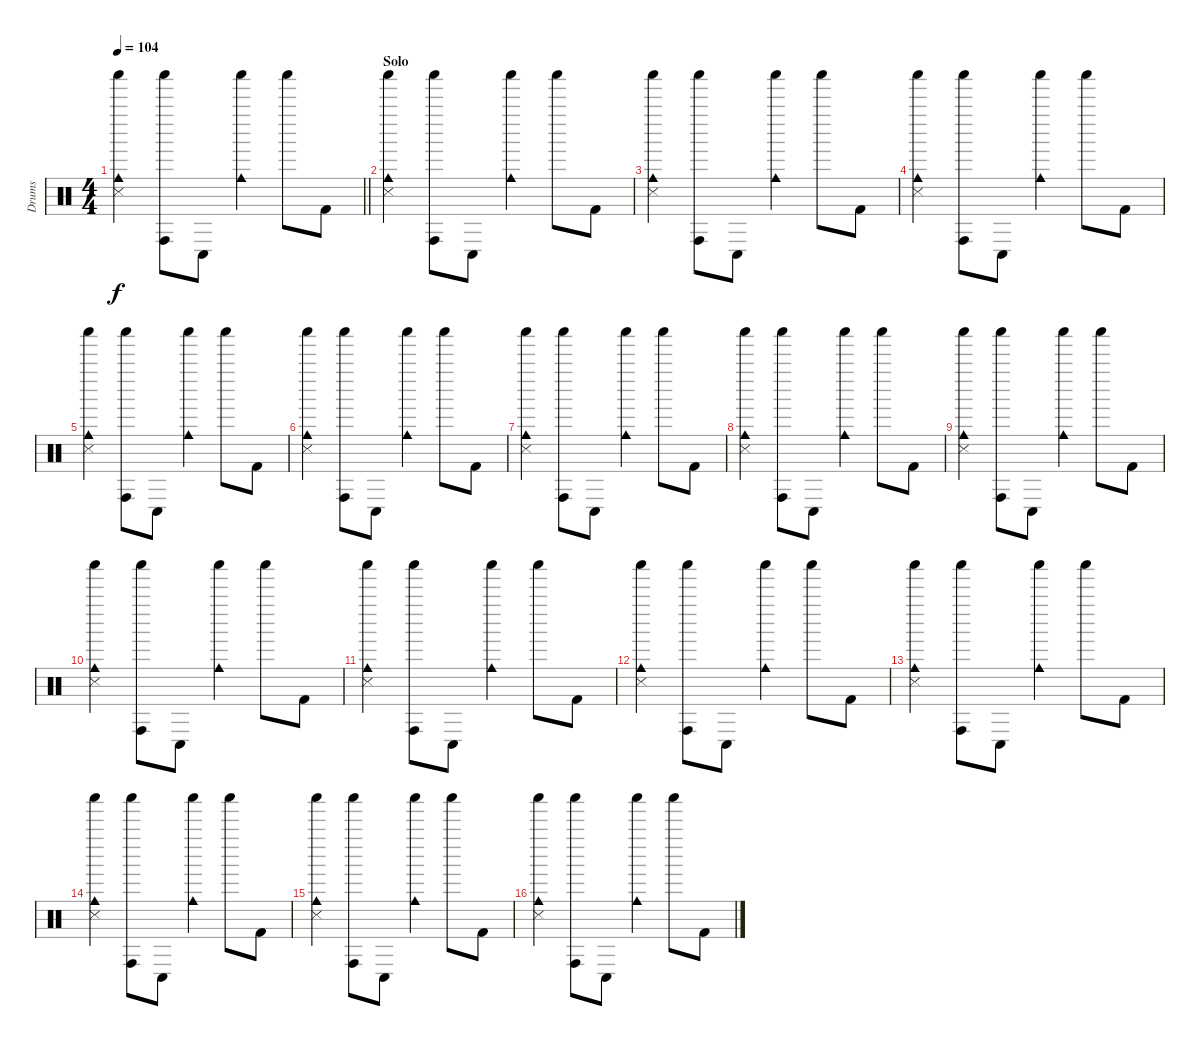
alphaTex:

\track ("Drums" "Drums") {instrument percussion}
\staff {score}
\articulation defaults
\ts (4 4)
\tempo 104
\clef neutral
\barLineRight lightlight
\ks c
("Snare (side stick) 3" "Shaker (hit)" "Cowbell medium (hit)").4{dy f} ("Shaker (hit)" "Conga high (hit)").8 "Conga low (hit)".8 ("Shaker (hit)" "Cowbell medium (hit)").4 "Shaker (hit)".8 "Kick (hit) 2".8 |
\section ("" "Solo")
("Snare (side stick) 3" "Shaker (hit)" "Cowbell medium (hit)").4 ("Shaker (hit)" "Conga high (hit)").8 "Conga low (hit)".8 ("Shaker (hit)" "Cowbell medium (hit)").4 "Shaker (hit)".8 "Kick (hit) 2".8 |
("Snare (side stick) 3" "Shaker (hit)" "Cowbell medium (hit)").4 ("Shaker (hit)" "Conga high (hit)").8 "Conga low (hit)".8 ("Shaker (hit)" "Cowbell medium (hit)").4 "Shaker (hit)".8 "Kick (hit) 2".8 |
("Snare (side stick) 3" "Shaker (hit)" "Cowbell medium (hit)").4 ("Shaker (hit)" "Conga high (hit)").8 "Conga low (hit)".8 ("Shaker (hit)" "Cowbell medium (hit)").4 "Shaker (hit)".8 "Kick (hit) 2".8 |
("Snare (side stick) 3" "Shaker (hit)" "Cowbell medium (hit)").4 ("Shaker (hit)" "Conga high (hit)").8 "Conga low (hit)".8 ("Shaker (hit)" "Cowbell medium (hit)").4 "Shaker (hit)".8 "Kick (hit) 2".8 |
("Snare (side stick) 3" "Shaker (hit)" "Cowbell medium (hit)").4 ("Shaker (hit)" "Conga high (hit)").8 "Conga low (hit)".8 ("Shaker (hit)" "Cowbell medium (hit)").4 "Shaker (hit)".8 "Kick (hit) 2".8 |
("Snare (side stick) 3" "Shaker (hit)" "Cowbell medium (hit)").4 ("Shaker (hit)" "Conga high (hit)").8 "Conga low (hit)".8 ("Shaker (hit)" "Cowbell medium (hit)").4 "Shaker (hit)".8 "Kick (hit) 2".8 |
("Snare (side stick) 3" "Shaker (hit)" "Cowbell medium (hit)").4 ("Shaker (hit)" "Conga high (hit)").8 "Conga low (hit)".8 ("Shaker (hit)" "Cowbell medium (hit)").4 "Shaker (hit)".8 "Kick (hit) 2".8 |
("Snare (side stick) 3" "Shaker (hit)" "Cowbell medium (hit)").4 ("Shaker (hit)" "Conga high (hit)").8 "Conga low (hit)".8 ("Shaker (hit)" "Cowbell medium (hit)").4 "Shaker (hit)".8 "Kick (hit) 2".8 |
("Snare (side stick) 3" "Shaker (hit)" "Cowbell medium (hit)").4 ("Shaker (hit)" "Conga high (hit)").8 "Conga low (hit)".8 ("Shaker (hit)" "Cowbell medium (hit)").4 "Shaker (hit)".8 "Kick (hit) 2".8 |
("Snare (side stick) 3" "Shaker (hit)" "Cowbell medium (hit)").4 ("Shaker (hit)" "Conga high (hit)").8 "Conga low (hit)".8 ("Shaker (hit)" "Cowbell medium (hit)").4 "Shaker (hit)".8 "Kick (hit) 2".8 |
("Snare (side stick) 3" "Shaker (hit)" "Cowbell medium (hit)").4 ("Shaker (hit)" "Conga high (hit)").8 "Conga low (hit)".8 ("Shaker (hit)" "Cowbell medium (hit)").4 "Shaker (hit)".8 "Kick (hit) 2".8 |
("Snare (side stick) 3" "Shaker (hit)" "Cowbell medium (hit)").4 ("Shaker (hit)" "Conga high (hit)").8 "Conga low (hit)".8 ("Shaker (hit)" "Cowbell medium (hit)").4 "Shaker (hit)".8 "Kick (hit) 2".8 |
("Snare (side stick) 3" "Shaker (hit)" "Cowbell medium (hit)").4 ("Shaker (hit)" "Conga high (hit)").8 "Conga low (hit)".8 ("Shaker (hit)" "Cowbell medium (hit)").4 "Shaker (hit)".8 "Kick (hit) 2".8 |
("Snare (side stick) 3" "Shaker (hit)" "Cowbell medium (hit)").4 ("Shaker (hit)" "Conga high (hit)").8 "Conga low (hit)".8 ("Shaker (hit)" "Cowbell medium (hit)").4 "Shaker (hit)".8 "Kick (hit) 2".8 |
("Snare (side stick) 3" "Shaker (hit)" "Cowbell medium (hit)").4 ("Shaker (hit)" "Conga high (hit)").8 "Conga low (hit)".8 ("Shaker (hit)" "Cowbell medium (hit)").4 "Shaker (hit)".8 "Kick (hit) 2".8
